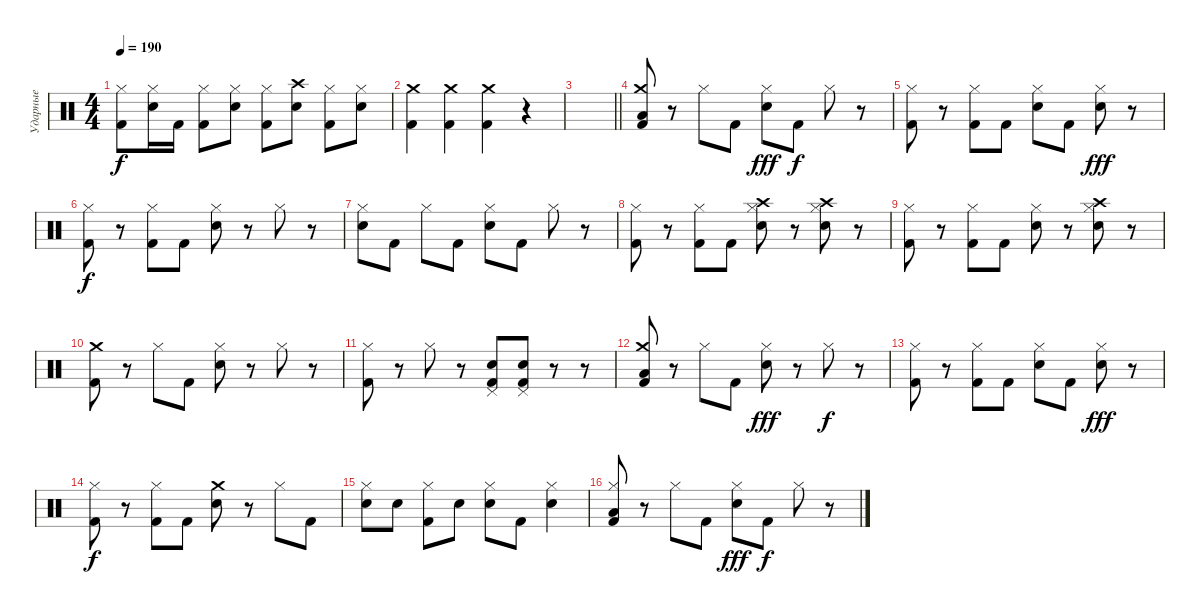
\track ("Ударные" "Ударные") {instrument percussion}
\staff {score}
\articulation defaults
\ts (4 4)
\tempo 190
\clef neutral
\ks c
("Kick (hit) 2" "Hi-Hat (closed)").8{dy f} ("Snare (hit) 2" "Hi-Hat (closed)").16 "Kick (hit) 2".16 ("Kick (hit) 2" "Hi-Hat (closed)").8 ("Snare (hit) 2" "Hi-Hat (closed)").8 ("Kick (hit) 2" "Hi-Hat (closed)").8 ("Snare (hit) 2" "Crash high (hit)").8 ("Kick (hit) 2" "Hi-Hat (closed)").8 ("Snare (hit) 2" "Hi-Hat (closed)").8 |
("Crash medium (hit)" "Kick (hit) 2").4 ("Crash medium (hit)" "Kick (hit) 2").4 ("Crash medium (hit)" "Kick (hit) 2").4 r.4 |
\barLineRight lightlight
|
("Kick (hit) 2" "Low Tom (hit)" "Crash medium (hit)").8 r.8 "Hi-Hat (closed)".8 "Kick (hit) 2".8 ("Snare (hit) 2" "Hi-Hat (closed)").8{dy fff} "Kick (hit) 2".8{dy f} "Hi-Hat (closed)".8 r.8 |
("Kick (hit) 2" "Hi-Hat (closed)").8 r.8 ("Kick (hit) 2" "Hi-Hat (closed)").8 "Kick (hit) 2".8 ("Snare (hit) 2" "Hi-Hat (closed)").8 "Kick (hit) 2".8 ("Snare (hit) 2" "Hi-Hat (closed)").8{dy fff} r.8 |
("Kick (hit) 2" "Hi-Hat (closed)").8{dy f} r.8 ("Kick (hit) 2" "Hi-Hat (closed)").8 "Kick (hit) 2".8 ("Snare (hit) 2" "Hi-Hat (closed)").8 r.8 "Hi-Hat (closed)".8 r.8 |
("Snare (hit) 2" "Hi-Hat (closed)").8 "Kick (hit) 2".8 "Hi-Hat (closed)".8 "Kick (hit) 2".8 ("Snare (hit) 2" "Hi-Hat (closed)").8 "Kick (hit) 2".8 "Hi-Hat (closed)".8 r.8 |
("Kick (hit) 2" "Hi-Hat (closed)").8 r.8 ("Kick (hit) 2" "Hi-Hat (closed)").8 "Kick (hit) 2".8 ("Crash high (hit)" "Snare (hit) 2" "Hi-Hat (closed)").8 r.8 ("Crash high (hit)" "Snare (hit) 2" "Hi-Hat (closed)").8 r.8 |
("Kick (hit) 2" "Hi-Hat (closed)").8 r.8 ("Kick (hit) 2" "Hi-Hat (closed)").8 "Kick (hit) 2".8 ("Snare (hit) 2" "Hi-Hat (closed)").8 r.8 ("Crash high (hit)" "Snare (hit) 2" "Hi-Hat (closed)").8 r.8 |
("Kick (hit) 2" "Crash medium (hit)").8 r.8 "Hi-Hat (closed)".8 "Kick (hit) 2".8 ("Snare (hit) 2" "Hi-Hat (closed)").8 r.8 "Hi-Hat (closed)".8 r.8 |
("Kick (hit) 2" "Hi-Hat (closed)").8 r.8 "Hi-Hat (closed)".8 r.8 ("Kick (hit) 2" "Snare (hit) 2" "Pedal Hi-Hat (hit)").8 ("Kick (hit) 2" "Snare (hit) 2" "Pedal Hi-Hat (hit)").8 r.8 r.8 |
("Kick (hit) 2" "Low Tom (hit)" "Crash medium (hit)").8 r.8 "Hi-Hat (closed)".8 "Kick (hit) 2".8 ("Snare (hit) 2" "Hi-Hat (closed)").8{dy fff} r.8 "Hi-Hat (closed)".8{dy f} r.8 |
("Kick (hit) 2" "Hi-Hat (closed)").8 r.8 ("Kick (hit) 2" "Hi-Hat (closed)").8 "Kick (hit) 2".8 ("Snare (hit) 2" "Hi-Hat (closed)").8 "Kick (hit) 2".8 ("Snare (hit) 2" "Hi-Hat (closed)").8{dy fff} r.8 |
("Kick (hit) 2" "Hi-Hat (closed)").8{dy f} r.8 ("Kick (hit) 2" "Hi-Hat (closed)").8 "Kick (hit) 2".8 ("Snare (hit) 2" "Crash medium (hit)").8 r.8 "Hi-Hat (closed)".8 "Kick (hit) 2".8 |
("Snare (hit) 2" "Hi-Hat (closed)").8 "Snare (hit) 2".8 ("Kick (hit) 2" "Hi-Hat (closed)").8 "Snare (hit) 2".8 ("Snare (hit) 2" "Hi-Hat (closed)").8 "Kick (hit) 2".8 ("Snare (hit) 2" "Hi-Hat (closed)").4 |
("Kick (hit) 2" "Low Tom (hit)" "Hi-Hat (closed)").8 r.8 "Hi-Hat (closed)".8 "Kick (hit) 2".8 ("Snare (hit) 2" "Hi-Hat (closed)").8{dy fff} "Kick (hit) 2".8{dy f} "Hi-Hat (closed)".8 r.8
